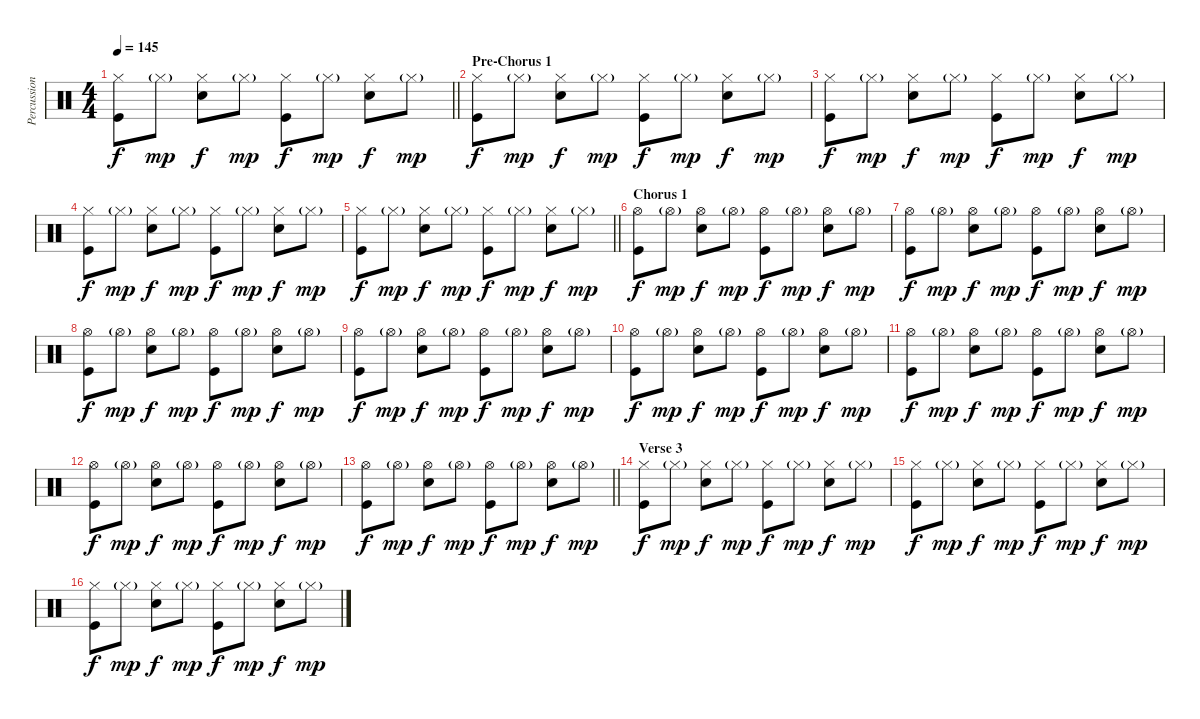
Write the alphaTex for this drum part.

\track ("Percussion" "Percussion") {instrument percussion}
\staff {score}
\articulation defaults
\ts (4 4)
\tempo 145
\clef neutral
\barLineRight lightlight
\ks c
("Hi-Hat (closed)" "Kick (hit)").8{dy f} "Hi-Hat (closed)"{g}.8{dy mp} ("Hi-Hat (closed)" "Snare (hit) 2").8{dy f} "Hi-Hat (closed)"{g}.8{dy mp} ("Hi-Hat (closed)" "Kick (hit)").8{dy f} "Hi-Hat (closed)"{g}.8{dy mp} ("Hi-Hat (closed)" "Snare (hit) 2").8{dy f} "Hi-Hat (closed)"{g}.8{dy mp} |
\section ("" "Pre-Chorus 1")
("Hi-Hat (closed)" "Kick (hit)").8{dy f} "Hi-Hat (closed)"{g}.8{dy mp} ("Hi-Hat (closed)" "Snare (hit) 2").8{dy f} "Hi-Hat (closed)"{g}.8{dy mp} ("Hi-Hat (closed)" "Kick (hit)").8{dy f} "Hi-Hat (closed)"{g}.8{dy mp} ("Hi-Hat (closed)" "Snare (hit) 2").8{dy f} "Hi-Hat (closed)"{g}.8{dy mp} |
("Hi-Hat (closed)" "Kick (hit)").8{dy f} "Hi-Hat (closed)"{g}.8{dy mp} ("Hi-Hat (closed)" "Snare (hit) 2").8{dy f} "Hi-Hat (closed)"{g}.8{dy mp} ("Hi-Hat (closed)" "Kick (hit)").8{dy f} "Hi-Hat (closed)"{g}.8{dy mp} ("Hi-Hat (closed)" "Snare (hit) 2").8{dy f} "Hi-Hat (closed)"{g}.8{dy mp} |
("Hi-Hat (closed)" "Kick (hit)").8{dy f} "Hi-Hat (closed)"{g}.8{dy mp} ("Hi-Hat (closed)" "Snare (hit) 2").8{dy f} "Hi-Hat (closed)"{g}.8{dy mp} ("Hi-Hat (closed)" "Kick (hit)").8{dy f} "Hi-Hat (closed)"{g}.8{dy mp} ("Hi-Hat (closed)" "Snare (hit) 2").8{dy f} "Hi-Hat (closed)"{g}.8{dy mp} |
\barLineRight lightlight
("Hi-Hat (closed)" "Kick (hit)").8{dy f} "Hi-Hat (closed)"{g}.8{dy mp} ("Hi-Hat (closed)" "Snare (hit) 2").8{dy f} "Hi-Hat (closed)"{g}.8{dy mp} ("Hi-Hat (closed)" "Kick (hit)").8{dy f} "Hi-Hat (closed)"{g}.8{dy mp} ("Hi-Hat (closed)" "Snare (hit) 2").8{dy f} "Hi-Hat (closed)"{g}.8{dy mp} |
\section ("" "Chorus 1")
("Hi-Hat (open)" "Kick (hit)").8{dy f} "Hi-Hat (open)"{g}.8{dy mp} ("Hi-Hat (open)" "Snare (hit) 2").8{dy f} "Hi-Hat (open)"{g}.8{dy mp} ("Hi-Hat (open)" "Kick (hit)").8{dy f} "Hi-Hat (open)"{g}.8{dy mp} ("Hi-Hat (open)" "Snare (hit) 2").8{dy f} "Hi-Hat (open)"{g}.8{dy mp} |
("Hi-Hat (open)" "Kick (hit)").8{dy f} "Hi-Hat (open)"{g}.8{dy mp} ("Hi-Hat (open)" "Snare (hit) 2").8{dy f} "Hi-Hat (open)"{g}.8{dy mp} ("Hi-Hat (open)" "Kick (hit)").8{dy f} "Hi-Hat (open)"{g}.8{dy mp} ("Hi-Hat (open)" "Snare (hit) 2").8{dy f} "Hi-Hat (open)"{g}.8{dy mp} |
("Hi-Hat (open)" "Kick (hit)").8{dy f} "Hi-Hat (open)"{g}.8{dy mp} ("Hi-Hat (open)" "Snare (hit) 2").8{dy f} "Hi-Hat (open)"{g}.8{dy mp} ("Hi-Hat (open)" "Kick (hit)").8{dy f} "Hi-Hat (open)"{g}.8{dy mp} ("Hi-Hat (open)" "Snare (hit) 2").8{dy f} "Hi-Hat (open)"{g}.8{dy mp} |
("Hi-Hat (open)" "Kick (hit)").8{dy f} "Hi-Hat (open)"{g}.8{dy mp} ("Hi-Hat (open)" "Snare (hit) 2").8{dy f} "Hi-Hat (open)"{g}.8{dy mp} ("Hi-Hat (open)" "Kick (hit)").8{dy f} "Hi-Hat (open)"{g}.8{dy mp} ("Hi-Hat (open)" "Snare (hit) 2").8{dy f} "Hi-Hat (open)"{g}.8{dy mp} |
("Hi-Hat (open)" "Kick (hit)").8{dy f} "Hi-Hat (open)"{g}.8{dy mp} ("Hi-Hat (open)" "Snare (hit) 2").8{dy f} "Hi-Hat (open)"{g}.8{dy mp} ("Hi-Hat (open)" "Kick (hit)").8{dy f} "Hi-Hat (open)"{g}.8{dy mp} ("Hi-Hat (open)" "Snare (hit) 2").8{dy f} "Hi-Hat (open)"{g}.8{dy mp} |
("Hi-Hat (open)" "Kick (hit)").8{dy f} "Hi-Hat (open)"{g}.8{dy mp} ("Hi-Hat (open)" "Snare (hit) 2").8{dy f} "Hi-Hat (open)"{g}.8{dy mp} ("Hi-Hat (open)" "Kick (hit)").8{dy f} "Hi-Hat (open)"{g}.8{dy mp} ("Hi-Hat (open)" "Snare (hit) 2").8{dy f} "Hi-Hat (open)"{g}.8{dy mp} |
("Hi-Hat (open)" "Kick (hit)").8{dy f} "Hi-Hat (open)"{g}.8{dy mp} ("Hi-Hat (open)" "Snare (hit) 2").8{dy f} "Hi-Hat (open)"{g}.8{dy mp} ("Hi-Hat (open)" "Kick (hit)").8{dy f} "Hi-Hat (open)"{g}.8{dy mp} ("Hi-Hat (open)" "Snare (hit) 2").8{dy f} "Hi-Hat (open)"{g}.8{dy mp} |
\barLineRight lightlight
("Hi-Hat (open)" "Kick (hit)").8{dy f} "Hi-Hat (open)"{g}.8{dy mp} ("Hi-Hat (open)" "Snare (hit) 2").8{dy f} "Hi-Hat (open)"{g}.8{dy mp} ("Hi-Hat (open)" "Kick (hit)").8{dy f} "Hi-Hat (open)"{g}.8{dy mp} ("Hi-Hat (open)" "Snare (hit) 2").8{dy f} "Hi-Hat (open)"{g}.8{dy mp} |
\section ("" "Verse 3")
("Hi-Hat (closed)" "Kick (hit)").8{dy f} "Hi-Hat (closed)"{g}.8{dy mp} ("Hi-Hat (closed)" "Snare (hit) 2").8{dy f} "Hi-Hat (closed)"{g}.8{dy mp} ("Hi-Hat (closed)" "Kick (hit)").8{dy f} "Hi-Hat (closed)"{g}.8{dy mp} ("Hi-Hat (closed)" "Snare (hit) 2").8{dy f} "Hi-Hat (closed)"{g}.8{dy mp} |
("Hi-Hat (closed)" "Kick (hit)").8{dy f} "Hi-Hat (closed)"{g}.8{dy mp} ("Hi-Hat (closed)" "Snare (hit) 2").8{dy f} "Hi-Hat (closed)"{g}.8{dy mp} ("Hi-Hat (closed)" "Kick (hit)").8{dy f} "Hi-Hat (closed)"{g}.8{dy mp} ("Hi-Hat (closed)" "Snare (hit) 2").8{dy f} "Hi-Hat (closed)"{g}.8{dy mp} |
("Hi-Hat (closed)" "Kick (hit)").8{dy f} "Hi-Hat (closed)"{g}.8{dy mp} ("Hi-Hat (closed)" "Snare (hit) 2").8{dy f} "Hi-Hat (closed)"{g}.8{dy mp} ("Hi-Hat (closed)" "Kick (hit)").8{dy f} "Hi-Hat (closed)"{g}.8{dy mp} ("Hi-Hat (closed)" "Snare (hit) 2").8{dy f} "Hi-Hat (closed)"{g}.8{dy mp}
